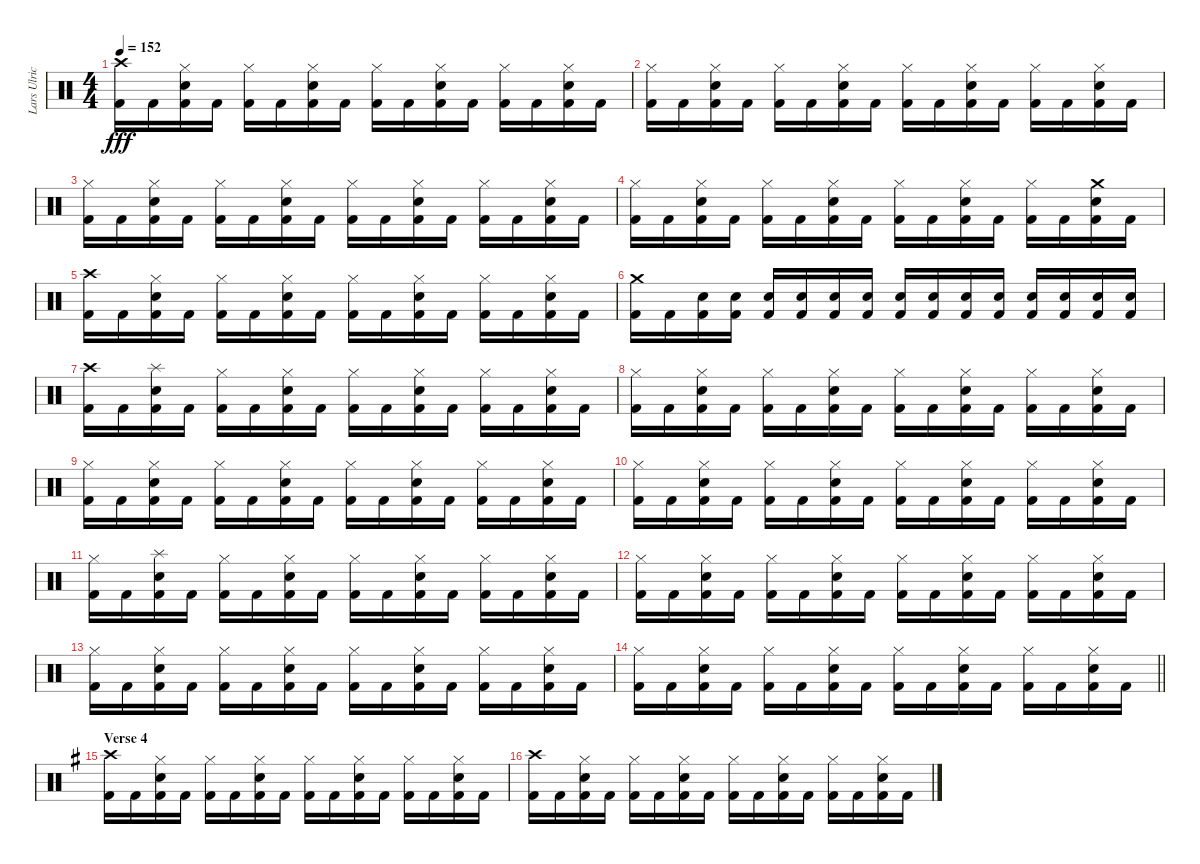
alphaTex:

\track ("Lars Ulrich" "Lars Ulric") {instrument percussion}
\staff {score}
\articulation defaults
\ts (4 4)
\tempo 152
\clef neutral
\ks c
("Crash high (hit)" "Kick (hit) 2").16{dy fff} "Kick (hit) 2".16 ("Hi-Hat (closed)" "Snare (hit) 2" "Kick (hit) 2").16 "Kick (hit) 2".16 ("Hi-Hat (closed)" "Kick (hit) 2").16 "Kick (hit) 2".16 ("Hi-Hat (closed)" "Snare (hit) 2" "Kick (hit) 2").16 "Kick (hit) 2".16 ("Hi-Hat (closed)" "Kick (hit) 2").16 "Kick (hit) 2".16 ("Hi-Hat (closed)" "Snare (hit) 2" "Kick (hit) 2").16 "Kick (hit) 2".16 ("Hi-Hat (closed)" "Kick (hit) 2").16 "Kick (hit) 2".16 ("Hi-Hat (closed)" "Snare (hit) 2" "Kick (hit) 2").16 "Kick (hit) 2".16 |
("Hi-Hat (closed)" "Kick (hit) 2").16 "Kick (hit) 2".16 ("Hi-Hat (closed)" "Snare (hit) 2" "Kick (hit) 2").16 "Kick (hit) 2".16 ("Hi-Hat (closed)" "Kick (hit) 2").16 "Kick (hit) 2".16 ("Hi-Hat (closed)" "Snare (hit) 2" "Kick (hit) 2").16 "Kick (hit) 2".16 ("Hi-Hat (closed)" "Kick (hit) 2").16 "Kick (hit) 2".16 ("Hi-Hat (closed)" "Snare (hit) 2" "Kick (hit) 2").16 "Kick (hit) 2".16 ("Hi-Hat (closed)" "Kick (hit) 2").16 "Kick (hit) 2".16 ("Hi-Hat (closed)" "Snare (hit) 2" "Kick (hit) 2").16 "Kick (hit) 2".16 |
("Hi-Hat (closed)" "Kick (hit) 2").16 "Kick (hit) 2".16 ("Hi-Hat (closed)" "Snare (hit) 2" "Kick (hit) 2").16 "Kick (hit) 2".16 ("Hi-Hat (closed)" "Kick (hit) 2").16 "Kick (hit) 2".16 ("Hi-Hat (closed)" "Snare (hit) 2" "Kick (hit) 2").16 "Kick (hit) 2".16 ("Hi-Hat (closed)" "Kick (hit) 2").16 "Kick (hit) 2".16 ("Hi-Hat (closed)" "Snare (hit) 2" "Kick (hit) 2").16 "Kick (hit) 2".16 ("Hi-Hat (closed)" "Kick (hit) 2").16 "Kick (hit) 2".16 ("Hi-Hat (closed)" "Snare (hit) 2" "Kick (hit) 2").16 "Kick (hit) 2".16 |
("Hi-Hat (closed)" "Kick (hit) 2").16 "Kick (hit) 2".16 ("Hi-Hat (closed)" "Snare (hit) 2" "Kick (hit) 2").16 "Kick (hit) 2".16 ("Hi-Hat (closed)" "Kick (hit) 2").16 "Kick (hit) 2".16 ("Hi-Hat (closed)" "Snare (hit) 2" "Kick (hit) 2").16 "Kick (hit) 2".16 ("Hi-Hat (closed)" "Kick (hit) 2").16 "Kick (hit) 2".16 ("Hi-Hat (closed)" "Snare (hit) 2" "Kick (hit) 2").16 "Kick (hit) 2".16 ("Hi-Hat (closed)" "Kick (hit) 2").16 "Kick (hit) 2".16 ("Crash medium (hit)" "Snare (hit) 2" "Kick (hit) 2").16 "Kick (hit) 2".16 |
("Crash high (hit)" "Kick (hit) 2").16 "Kick (hit) 2".16 ("Hi-Hat (closed)" "Snare (hit) 2" "Kick (hit) 2").16 "Kick (hit) 2".16 ("Hi-Hat (closed)" "Kick (hit) 2").16 "Kick (hit) 2".16 ("Hi-Hat (closed)" "Snare (hit) 2" "Kick (hit) 2").16 "Kick (hit) 2".16 ("Hi-Hat (closed)" "Kick (hit) 2").16 "Kick (hit) 2".16 ("Hi-Hat (closed)" "Snare (hit) 2" "Kick (hit) 2").16 "Kick (hit) 2".16 ("Hi-Hat (closed)" "Kick (hit) 2").16 "Kick (hit) 2".16 ("Hi-Hat (closed)" "Snare (hit) 2" "Kick (hit) 2").16 "Kick (hit) 2".16 |
("Crash medium (hit)" "Kick (hit) 2").16{volume 16} "Kick (hit) 2".16 ("Snare (hit) 2" "Kick (hit) 2").16 ("Snare (hit) 2" "Kick (hit) 2").16 ("Snare (hit) 2" "Kick (hit) 2").16 ("Snare (hit) 2" "Kick (hit) 2").16 ("Snare (hit) 2" "Kick (hit) 2").16 ("Snare (hit) 2" "Kick (hit) 2").16 ("Snare (hit) 2" "Kick (hit) 2").16 ("Snare (hit) 2" "Kick (hit) 2").16 ("Snare (hit) 2" "Kick (hit) 2").16 ("Snare (hit) 2" "Kick (hit) 2").16 ("Snare (hit) 2" "Kick (hit) 2").16 ("Snare (hit) 2" "Kick (hit) 2").16 ("Snare (hit) 2" "Kick (hit) 2").16 ("Snare (hit) 2" "Kick (hit) 2").16 |
("Crash high (hit)" "Kick (hit) 2").16{volume 13} "Kick (hit) 2".16 ("Splash (hit)" "Snare (hit) 2" "Kick (hit) 2").16 "Kick (hit) 2".16 ("Hi-Hat (closed)" "Kick (hit) 2").16 "Kick (hit) 2".16 ("Hi-Hat (closed)" "Snare (hit) 2" "Kick (hit) 2").16 "Kick (hit) 2".16 ("Hi-Hat (closed)" "Kick (hit) 2").16 "Kick (hit) 2".16 ("Hi-Hat (closed)" "Snare (hit) 2" "Kick (hit) 2").16 "Kick (hit) 2".16 ("Hi-Hat (closed)" "Kick (hit) 2").16 "Kick (hit) 2".16 ("Hi-Hat (closed)" "Snare (hit) 2" "Kick (hit) 2").16 "Kick (hit) 2".16 |
("Hi-Hat (closed)" "Kick (hit) 2").16 "Kick (hit) 2".16 ("Hi-Hat (closed)" "Snare (hit) 2" "Kick (hit) 2").16 "Kick (hit) 2".16 ("Hi-Hat (closed)" "Kick (hit) 2").16 "Kick (hit) 2".16 ("Hi-Hat (closed)" "Snare (hit) 2" "Kick (hit) 2").16 "Kick (hit) 2".16 ("Hi-Hat (closed)" "Kick (hit) 2").16 "Kick (hit) 2".16 ("Hi-Hat (closed)" "Snare (hit) 2" "Kick (hit) 2").16 "Kick (hit) 2".16 ("Hi-Hat (closed)" "Kick (hit) 2").16 "Kick (hit) 2".16 ("Hi-Hat (closed)" "Snare (hit) 2" "Kick (hit) 2").16 "Kick (hit) 2".16 |
("Hi-Hat (closed)" "Kick (hit) 2").16 "Kick (hit) 2".16 ("Hi-Hat (closed)" "Snare (hit) 2" "Kick (hit) 2").16 "Kick (hit) 2".16 ("Hi-Hat (closed)" "Kick (hit) 2").16 "Kick (hit) 2".16 ("Hi-Hat (closed)" "Snare (hit) 2" "Kick (hit) 2").16 "Kick (hit) 2".16 ("Hi-Hat (closed)" "Kick (hit) 2").16 "Kick (hit) 2".16 ("Hi-Hat (closed)" "Snare (hit) 2" "Kick (hit) 2").16 "Kick (hit) 2".16 ("Hi-Hat (closed)" "Kick (hit) 2").16 "Kick (hit) 2".16 ("Hi-Hat (closed)" "Snare (hit) 2" "Kick (hit) 2").16 "Kick (hit) 2".16 |
("Hi-Hat (closed)" "Kick (hit) 2").16 "Kick (hit) 2".16 ("Hi-Hat (closed)" "Snare (hit) 2" "Kick (hit) 2").16 "Kick (hit) 2".16 ("Hi-Hat (closed)" "Kick (hit) 2").16 "Kick (hit) 2".16 ("Hi-Hat (closed)" "Snare (hit) 2" "Kick (hit) 2").16 "Kick (hit) 2".16 ("Hi-Hat (closed)" "Kick (hit) 2").16 "Kick (hit) 2".16 ("Hi-Hat (closed)" "Snare (hit) 2" "Kick (hit) 2").16 "Kick (hit) 2".16 ("Hi-Hat (closed)" "Kick (hit) 2").16 "Kick (hit) 2".16 ("Hi-Hat (closed)" "Snare (hit) 2" "Kick (hit) 2").16 "Kick (hit) 2".16 |
("Hi-Hat (closed)" "Kick (hit) 2").16 "Kick (hit) 2".16 ("Splash (hit)" "Snare (hit) 2" "Kick (hit) 2").16 "Kick (hit) 2".16 ("Hi-Hat (closed)" "Kick (hit) 2").16 "Kick (hit) 2".16 ("Hi-Hat (closed)" "Snare (hit) 2" "Kick (hit) 2").16 "Kick (hit) 2".16 ("Hi-Hat (closed)" "Kick (hit) 2").16 "Kick (hit) 2".16 ("Hi-Hat (closed)" "Snare (hit) 2" "Kick (hit) 2").16 "Kick (hit) 2".16 ("Hi-Hat (closed)" "Kick (hit) 2").16 "Kick (hit) 2".16 ("Hi-Hat (closed)" "Snare (hit) 2" "Kick (hit) 2").16 "Kick (hit) 2".16 |
("Hi-Hat (closed)" "Kick (hit) 2").16 "Kick (hit) 2".16 ("Hi-Hat (closed)" "Snare (hit) 2" "Kick (hit) 2").16 "Kick (hit) 2".16 ("Hi-Hat (closed)" "Kick (hit) 2").16 "Kick (hit) 2".16 ("Hi-Hat (closed)" "Snare (hit) 2" "Kick (hit) 2").16 "Kick (hit) 2".16 ("Hi-Hat (closed)" "Kick (hit) 2").16 "Kick (hit) 2".16 ("Hi-Hat (closed)" "Snare (hit) 2" "Kick (hit) 2").16 "Kick (hit) 2".16 ("Hi-Hat (closed)" "Kick (hit) 2").16 "Kick (hit) 2".16 ("Hi-Hat (closed)" "Snare (hit) 2" "Kick (hit) 2").16 "Kick (hit) 2".16 |
("Hi-Hat (closed)" "Kick (hit) 2").16 "Kick (hit) 2".16 ("Hi-Hat (closed)" "Snare (hit) 2" "Kick (hit) 2").16 "Kick (hit) 2".16 ("Hi-Hat (closed)" "Kick (hit) 2").16 "Kick (hit) 2".16 ("Hi-Hat (closed)" "Snare (hit) 2" "Kick (hit) 2").16 "Kick (hit) 2".16 ("Hi-Hat (closed)" "Kick (hit) 2").16 "Kick (hit) 2".16 ("Hi-Hat (closed)" "Snare (hit) 2" "Kick (hit) 2").16 "Kick (hit) 2".16 ("Hi-Hat (closed)" "Kick (hit) 2").16 "Kick (hit) 2".16 ("Hi-Hat (closed)" "Snare (hit) 2" "Kick (hit) 2").16 "Kick (hit) 2".16 |
\barLineRight lightlight
("Hi-Hat (closed)" "Kick (hit) 2").16 "Kick (hit) 2".16 ("Hi-Hat (closed)" "Snare (hit) 2" "Kick (hit) 2").16 "Kick (hit) 2".16 ("Hi-Hat (closed)" "Kick (hit) 2").16 "Kick (hit) 2".16 ("Hi-Hat (closed)" "Snare (hit) 2" "Kick (hit) 2").16 "Kick (hit) 2".16 ("Hi-Hat (closed)" "Kick (hit) 2").16 "Kick (hit) 2".16 ("Hi-Hat (closed)" "Snare (hit) 2" "Kick (hit) 2").16 "Kick (hit) 2".16 ("Hi-Hat (closed)" "Kick (hit) 2").16 "Kick (hit) 2".16 ("Hi-Hat (closed)" "Snare (hit) 2" "Kick (hit) 2").16 "Kick (hit) 2".16 |
\section ("" "Verse 4")
\ks g
("Crash high (hit)" "Kick (hit) 2").16 "Kick (hit) 2".16 ("Hi-Hat (closed)" "Snare (hit) 2" "Kick (hit) 2").16 "Kick (hit) 2".16 ("Hi-Hat (closed)" "Kick (hit) 2").16 "Kick (hit) 2".16 ("Hi-Hat (closed)" "Snare (hit) 2" "Kick (hit) 2").16 "Kick (hit) 2".16 ("Hi-Hat (closed)" "Kick (hit) 2").16 "Kick (hit) 2".16 ("Hi-Hat (closed)" "Snare (hit) 2" "Kick (hit) 2").16 "Kick (hit) 2".16 ("Hi-Hat (closed)" "Kick (hit) 2").16 "Kick (hit) 2".16 ("Hi-Hat (closed)" "Snare (hit) 2" "Kick (hit) 2").16 "Kick (hit) 2".16 |
("Crash high (hit)" "Kick (hit) 2").16 "Kick (hit) 2".16 ("Hi-Hat (closed)" "Snare (hit) 2" "Kick (hit) 2").16 "Kick (hit) 2".16 ("Hi-Hat (closed)" "Kick (hit) 2").16 "Kick (hit) 2".16 ("Hi-Hat (closed)" "Snare (hit) 2" "Kick (hit) 2").16 "Kick (hit) 2".16 ("Hi-Hat (closed)" "Kick (hit) 2").16 "Kick (hit) 2".16 ("Hi-Hat (closed)" "Snare (hit) 2" "Kick (hit) 2").16 "Kick (hit) 2".16 ("Hi-Hat (closed)" "Kick (hit) 2").16 "Kick (hit) 2".16 ("Hi-Hat (closed)" "Snare (hit) 2" "Kick (hit) 2").16 "Kick (hit) 2".16
